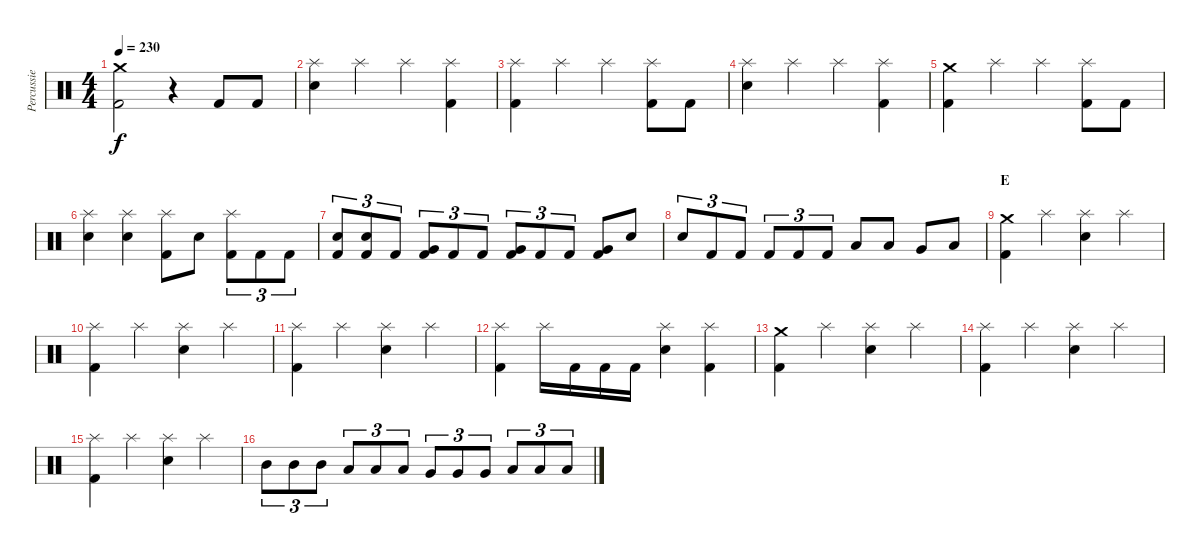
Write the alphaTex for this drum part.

\track ("Percussie" "Percussie") {instrument percussion}
\staff {score}
\articulation defaults
\ts (4 4)
\tempo 230
\clef neutral
\ks c
("Crash medium (hit)" "Kick (hit) 2").2{dy f} r.4 "Kick (hit) 2".8 "Kick (hit) 2".8 |
("Splash (hit)" "Electric Snare (hit)").4 "Splash (hit)".4 "Splash (hit)".4 ("Splash (hit)" "Kick (hit) 2").4 |
("Splash (hit)" "Kick (hit) 2").4 "Splash (hit)".4 "Splash (hit)".4 ("Splash (hit)" "Kick (hit) 2").8 "Kick (hit) 2".8 |
("Splash (hit)" "Electric Snare (hit)").4 "Splash (hit)".4 "Splash (hit)".4 ("Splash (hit)" "Kick (hit) 2").4 |
("Crash medium (hit)" "Kick (hit) 2").4 "Splash (hit)".4 "Splash (hit)".4 ("Splash (hit)" "Kick (hit) 2").8 "Kick (hit) 2".8 |
("Splash (hit)" "Electric Snare (hit)").4 ("Splash (hit)" "Electric Snare (hit)").4 ("Splash (hit)" "Kick (hit) 2").8 "Electric Snare (hit)".8 ("Splash (hit)" "Kick (hit) 2").8{tu (3 2)} "Kick (hit) 2".8{tu (3 2)} "Kick (hit) 2".8{tu (3 2)} |
("Electric Snare (hit)" "Kick (hit) 2").8{tu (3 2)} ("Electric Snare (hit)" "Kick (hit) 2").8{tu (3 2)} "Kick (hit) 2".8{tu (3 2)} ("Very Low Tom (hit)" "Kick (hit) 2").8{tu (3 2)} "Kick (hit) 2".8{tu (3 2)} "Kick (hit) 2".8{tu (3 2)} ("Very Low Tom (hit)" "Kick (hit) 2").8{tu (3 2)} "Kick (hit) 2".8{tu (3 2)} "Kick (hit) 2".8{tu (3 2)} ("Very Low Tom (hit)" "Kick (hit) 2").8 "Electric Snare (hit)".8 |
"Electric Snare (hit)".8{tu (3 2)} "Kick (hit) 2".8{tu (3 2)} "Kick (hit) 2".8{tu (3 2)} "Kick (hit) 2".8{tu (3 2)} "Kick (hit) 2".8{tu (3 2)} "Kick (hit) 2".8{tu (3 2)} "Low Tom (hit)".8 "Low Tom (hit)".8 "Very Low Tom (hit)".8 "Low Floor Tom (hit)".8 |
\section ("" "E")
("Crash medium (hit)" "Kick (hit) 2").4 "Splash (hit)".4 ("Splash (hit)" "Electric Snare (hit)").4 "Splash (hit)".4 |
("Splash (hit)" "Kick (hit) 2").4 "Splash (hit)".4 ("Splash (hit)" "Electric Snare (hit)").4 "Splash (hit)".4 |
("Splash (hit)" "Kick (hit) 2").4 "Splash (hit)".4 ("Splash (hit)" "Electric Snare (hit)").4 "Splash (hit)".4 |
("Splash (hit)" "Kick (hit) 2").4 "Splash (hit)".16 "Kick (hit) 2".16 "Kick (hit) 2".16 "Kick (hit) 2".16 ("Splash (hit)" "Electric Snare (hit)").4 ("Splash (hit)" "Kick (hit) 2").4 |
("Crash medium (hit)" "Kick (hit) 2").4 "Splash (hit)".4 ("Splash (hit)" "Electric Snare (hit)").4 "Splash (hit)".4 |
("Splash (hit)" "Kick (hit) 2").4 "Splash (hit)".4 ("Splash (hit)" "Electric Snare (hit)").4 "Splash (hit)".4 |
("Splash (hit)" "Kick (hit) 2").4 "Splash (hit)".4 ("Splash (hit)" "Electric Snare (hit)").4 "Splash (hit)".4 |
"Mid Tom (hit)".8{tu (3 2)} "Mid Tom (hit)".8{tu (3 2)} "Mid Tom (hit)".8{tu (3 2)} "Low Tom (hit)".8{tu (3 2)} "Low Tom (hit)".8{tu (3 2)} "Low Tom (hit)".8{tu (3 2)} "Very Low Tom (hit)".8{tu (3 2)} "Very Low Tom (hit)".8{tu (3 2)} "Very Low Tom (hit)".8{tu (3 2)} "Low Floor Tom (hit)".8{tu (3 2)} "Low Floor Tom (hit)".8{tu (3 2)} "Low Floor Tom (hit)".8{tu (3 2)}
